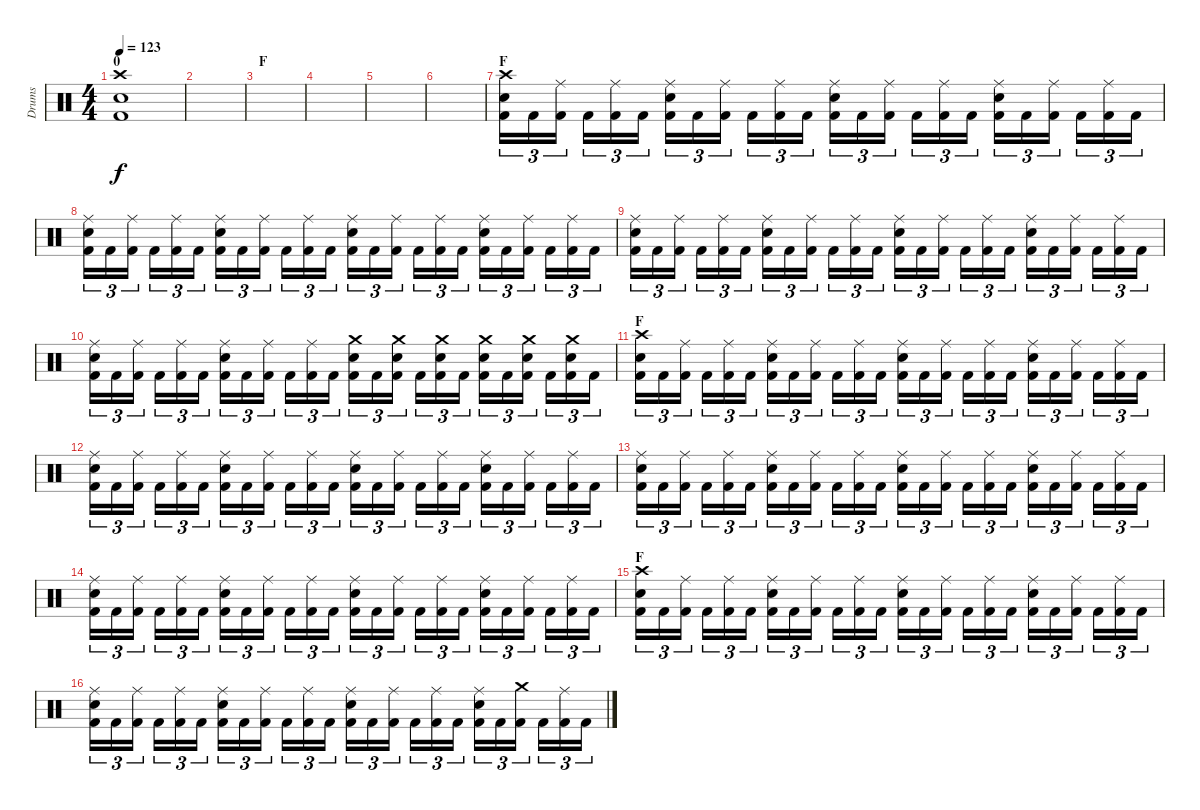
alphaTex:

\track ("Drums" "Drums") {instrument percussion}
\staff {score}
\articulation defaults
\ts (4 4)
\section ("" "0")
\tempo 123
\clef neutral
\ks c
("Crash high (hit)" "Snare (hit) 2" "Kick (hit) 2").1{dy f} |
|
\section ("" "F")
|
|
|
|
\section ("" "F")
("Crash high (hit)" "Snare (hit) 2" "Kick (hit) 2").16{tu (3 2)} "Kick (hit) 2".16{tu (3 2)} ("Ride (middle)" "Kick (hit) 2").16{tu (3 2)} "Kick (hit) 2".16{tu (3 2)} ("Ride (middle)" "Kick (hit) 2").16{tu (3 2)} "Kick (hit) 2".16{tu (3 2)} ("Ride (middle)" "Snare (hit) 2" "Kick (hit) 2").16{tu (3 2)} "Kick (hit) 2".16{tu (3 2)} ("Ride (middle)" "Kick (hit) 2").16{tu (3 2)} "Kick (hit) 2".16{tu (3 2)} ("Ride (middle)" "Kick (hit) 2").16{tu (3 2)} "Kick (hit) 2".16{tu (3 2)} ("Ride (middle)" "Snare (hit) 2" "Kick (hit) 2").16{tu (3 2)} "Kick (hit) 2".16{tu (3 2)} ("Ride (middle)" "Kick (hit) 2").16{tu (3 2)} "Kick (hit) 2".16{tu (3 2)} ("Ride (middle)" "Kick (hit) 2").16{tu (3 2)} "Kick (hit) 2".16{tu (3 2)} ("Ride (middle)" "Snare (hit) 2" "Kick (hit) 2").16{tu (3 2)} "Kick (hit) 2".16{tu (3 2)} ("Ride (middle)" "Kick (hit) 2").16{tu (3 2)} "Kick (hit) 2".16{tu (3 2)} ("Ride (middle)" "Kick (hit) 2").16{tu (3 2)} "Kick (hit) 2".16{tu (3 2)} |
("Ride (middle)" "Snare (hit) 2" "Kick (hit) 2").16{tu (3 2)} "Kick (hit) 2".16{tu (3 2)} ("Ride (middle)" "Kick (hit) 2").16{tu (3 2)} "Kick (hit) 2".16{tu (3 2)} ("Ride (middle)" "Kick (hit) 2").16{tu (3 2)} "Kick (hit) 2".16{tu (3 2)} ("Ride (middle)" "Snare (hit) 2" "Kick (hit) 2").16{tu (3 2)} "Kick (hit) 2".16{tu (3 2)} ("Ride (middle)" "Kick (hit) 2").16{tu (3 2)} "Kick (hit) 2".16{tu (3 2)} ("Ride (middle)" "Kick (hit) 2").16{tu (3 2)} "Kick (hit) 2".16{tu (3 2)} ("Ride (middle)" "Snare (hit) 2" "Kick (hit) 2").16{tu (3 2)} "Kick (hit) 2".16{tu (3 2)} ("Ride (middle)" "Kick (hit) 2").16{tu (3 2)} "Kick (hit) 2".16{tu (3 2)} ("Ride (middle)" "Kick (hit) 2").16{tu (3 2)} "Kick (hit) 2".16{tu (3 2)} ("Ride (middle)" "Snare (hit) 2" "Kick (hit) 2").16{tu (3 2)} "Kick (hit) 2".16{tu (3 2)} ("Ride (middle)" "Kick (hit) 2").16{tu (3 2)} "Kick (hit) 2".16{tu (3 2)} ("Ride (middle)" "Kick (hit) 2").16{tu (3 2)} "Kick (hit) 2".16{tu (3 2)} |
("Ride (middle)" "Snare (hit) 2" "Kick (hit) 2").16{tu (3 2)} "Kick (hit) 2".16{tu (3 2)} ("Ride (middle)" "Kick (hit) 2").16{tu (3 2)} "Kick (hit) 2".16{tu (3 2)} ("Ride (middle)" "Kick (hit) 2").16{tu (3 2)} "Kick (hit) 2".16{tu (3 2)} ("Ride (middle)" "Snare (hit) 2" "Kick (hit) 2").16{tu (3 2)} "Kick (hit) 2".16{tu (3 2)} ("Ride (middle)" "Kick (hit) 2").16{tu (3 2)} "Kick (hit) 2".16{tu (3 2)} ("Ride (middle)" "Kick (hit) 2").16{tu (3 2)} "Kick (hit) 2".16{tu (3 2)} ("Ride (middle)" "Snare (hit) 2" "Kick (hit) 2").16{tu (3 2)} "Kick (hit) 2".16{tu (3 2)} ("Ride (middle)" "Kick (hit) 2").16{tu (3 2)} "Kick (hit) 2".16{tu (3 2)} ("Ride (middle)" "Kick (hit) 2").16{tu (3 2)} "Kick (hit) 2".16{tu (3 2)} ("Ride (middle)" "Snare (hit) 2" "Kick (hit) 2").16{tu (3 2)} "Kick (hit) 2".16{tu (3 2)} ("Ride (middle)" "Kick (hit) 2").16{tu (3 2)} "Kick (hit) 2".16{tu (3 2)} ("Ride (middle)" "Kick (hit) 2").16{tu (3 2)} "Kick (hit) 2".16{tu (3 2)} |
("Ride (middle)" "Snare (hit) 2" "Kick (hit) 2").16{tu (3 2)} "Kick (hit) 2".16{tu (3 2)} ("Ride (middle)" "Kick (hit) 2").16{tu (3 2)} "Kick (hit) 2".16{tu (3 2)} ("Ride (middle)" "Kick (hit) 2").16{tu (3 2)} "Kick (hit) 2".16{tu (3 2)} ("Ride (middle)" "Snare (hit) 2" "Kick (hit) 2").16{tu (3 2)} "Kick (hit) 2".16{tu (3 2)} ("Ride (middle)" "Kick (hit) 2").16{tu (3 2)} "Kick (hit) 2".16{tu (3 2)} ("Ride (middle)" "Kick (hit) 2").16{tu (3 2)} "Kick (hit) 2".16{tu (3 2)} ("Crash medium (hit)" "Snare (hit) 2" "Kick (hit) 2").16{tu (3 2)} "Kick (hit) 2".16{tu (3 2)} ("Crash medium (hit)" "Snare (hit) 2" "Kick (hit) 2").16{tu (3 2)} "Kick (hit) 2".16{tu (3 2)} ("Crash medium (hit)" "Snare (hit) 2" "Kick (hit) 2").16{tu (3 2)} "Kick (hit) 2".16{tu (3 2)} ("Crash medium (hit)" "Snare (hit) 2" "Kick (hit) 2").16{tu (3 2)} "Kick (hit) 2".16{tu (3 2)} ("Crash medium (hit)" "Snare (hit) 2" "Kick (hit) 2").16{tu (3 2)} "Kick (hit) 2".16{tu (3 2)} ("Crash medium (hit)" "Snare (hit) 2" "Kick (hit) 2").16{tu (3 2)} "Kick (hit) 2".16{tu (3 2)} |
\section ("" "F")
("Crash high (hit)" "Snare (hit) 2" "Kick (hit) 2").16{tu (3 2)} "Kick (hit) 2".16{tu (3 2)} ("Ride (middle)" "Kick (hit) 2").16{tu (3 2)} "Kick (hit) 2".16{tu (3 2)} ("Ride (middle)" "Kick (hit) 2").16{tu (3 2)} "Kick (hit) 2".16{tu (3 2)} ("Ride (middle)" "Snare (hit) 2" "Kick (hit) 2").16{tu (3 2)} "Kick (hit) 2".16{tu (3 2)} ("Ride (middle)" "Kick (hit) 2").16{tu (3 2)} "Kick (hit) 2".16{tu (3 2)} ("Ride (middle)" "Kick (hit) 2").16{tu (3 2)} "Kick (hit) 2".16{tu (3 2)} ("Ride (middle)" "Snare (hit) 2" "Kick (hit) 2").16{tu (3 2)} "Kick (hit) 2".16{tu (3 2)} ("Ride (middle)" "Kick (hit) 2").16{tu (3 2)} "Kick (hit) 2".16{tu (3 2)} ("Ride (middle)" "Kick (hit) 2").16{tu (3 2)} "Kick (hit) 2".16{tu (3 2)} ("Ride (middle)" "Snare (hit) 2" "Kick (hit) 2").16{tu (3 2)} "Kick (hit) 2".16{tu (3 2)} ("Ride (middle)" "Kick (hit) 2").16{tu (3 2)} "Kick (hit) 2".16{tu (3 2)} ("Ride (middle)" "Kick (hit) 2").16{tu (3 2)} "Kick (hit) 2".16{tu (3 2)} |
("Ride (middle)" "Snare (hit) 2" "Kick (hit) 2").16{tu (3 2)} "Kick (hit) 2".16{tu (3 2)} ("Ride (middle)" "Kick (hit) 2").16{tu (3 2)} "Kick (hit) 2".16{tu (3 2)} ("Ride (middle)" "Kick (hit) 2").16{tu (3 2)} "Kick (hit) 2".16{tu (3 2)} ("Ride (middle)" "Snare (hit) 2" "Kick (hit) 2").16{tu (3 2)} "Kick (hit) 2".16{tu (3 2)} ("Ride (middle)" "Kick (hit) 2").16{tu (3 2)} "Kick (hit) 2".16{tu (3 2)} ("Ride (middle)" "Kick (hit) 2").16{tu (3 2)} "Kick (hit) 2".16{tu (3 2)} ("Ride (middle)" "Snare (hit) 2" "Kick (hit) 2").16{tu (3 2)} "Kick (hit) 2".16{tu (3 2)} ("Ride (middle)" "Kick (hit) 2").16{tu (3 2)} "Kick (hit) 2".16{tu (3 2)} ("Ride (middle)" "Kick (hit) 2").16{tu (3 2)} "Kick (hit) 2".16{tu (3 2)} ("Ride (middle)" "Snare (hit) 2" "Kick (hit) 2").16{tu (3 2)} "Kick (hit) 2".16{tu (3 2)} ("Ride (middle)" "Kick (hit) 2").16{tu (3 2)} "Kick (hit) 2".16{tu (3 2)} ("Ride (middle)" "Kick (hit) 2").16{tu (3 2)} "Kick (hit) 2".16{tu (3 2)} |
("Ride (middle)" "Snare (hit) 2" "Kick (hit) 2").16{tu (3 2)} "Kick (hit) 2".16{tu (3 2)} ("Ride (middle)" "Kick (hit) 2").16{tu (3 2)} "Kick (hit) 2".16{tu (3 2)} ("Ride (middle)" "Kick (hit) 2").16{tu (3 2)} "Kick (hit) 2".16{tu (3 2)} ("Ride (middle)" "Snare (hit) 2" "Kick (hit) 2").16{tu (3 2)} "Kick (hit) 2".16{tu (3 2)} ("Ride (middle)" "Kick (hit) 2").16{tu (3 2)} "Kick (hit) 2".16{tu (3 2)} ("Ride (middle)" "Kick (hit) 2").16{tu (3 2)} "Kick (hit) 2".16{tu (3 2)} ("Ride (middle)" "Snare (hit) 2" "Kick (hit) 2").16{tu (3 2)} "Kick (hit) 2".16{tu (3 2)} ("Ride (middle)" "Kick (hit) 2").16{tu (3 2)} "Kick (hit) 2".16{tu (3 2)} ("Ride (middle)" "Kick (hit) 2").16{tu (3 2)} "Kick (hit) 2".16{tu (3 2)} ("Ride (middle)" "Snare (hit) 2" "Kick (hit) 2").16{tu (3 2)} "Kick (hit) 2".16{tu (3 2)} ("Ride (middle)" "Kick (hit) 2").16{tu (3 2)} "Kick (hit) 2".16{tu (3 2)} ("Ride (middle)" "Kick (hit) 2").16{tu (3 2)} "Kick (hit) 2".16{tu (3 2)} |
("Ride (middle)" "Snare (hit) 2" "Kick (hit) 2").16{tu (3 2)} "Kick (hit) 2".16{tu (3 2)} ("Ride (middle)" "Kick (hit) 2").16{tu (3 2)} "Kick (hit) 2".16{tu (3 2)} ("Ride (middle)" "Kick (hit) 2").16{tu (3 2)} "Kick (hit) 2".16{tu (3 2)} ("Ride (middle)" "Snare (hit) 2" "Kick (hit) 2").16{tu (3 2)} "Kick (hit) 2".16{tu (3 2)} ("Ride (middle)" "Kick (hit) 2").16{tu (3 2)} "Kick (hit) 2".16{tu (3 2)} ("Ride (middle)" "Kick (hit) 2").16{tu (3 2)} "Kick (hit) 2".16{tu (3 2)} ("Ride (middle)" "Snare (hit) 2" "Kick (hit) 2").16{tu (3 2)} "Kick (hit) 2".16{tu (3 2)} ("Ride (middle)" "Kick (hit) 2").16{tu (3 2)} "Kick (hit) 2".16{tu (3 2)} ("Ride (middle)" "Kick (hit) 2").16{tu (3 2)} "Kick (hit) 2".16{tu (3 2)} ("Ride (middle)" "Snare (hit) 2" "Kick (hit) 2").16{tu (3 2)} "Kick (hit) 2".16{tu (3 2)} ("Ride (middle)" "Kick (hit) 2").16{tu (3 2)} "Kick (hit) 2".16{tu (3 2)} ("Ride (middle)" "Kick (hit) 2").16{tu (3 2)} "Kick (hit) 2".16{tu (3 2)} |
\section ("" "F")
("Crash high (hit)" "Snare (hit) 2" "Kick (hit) 2").16{tu (3 2)} "Kick (hit) 2".16{tu (3 2)} ("Ride (middle)" "Kick (hit) 2").16{tu (3 2)} "Kick (hit) 2".16{tu (3 2)} ("Ride (middle)" "Kick (hit) 2").16{tu (3 2)} "Kick (hit) 2".16{tu (3 2)} ("Ride (middle)" "Snare (hit) 2" "Kick (hit) 2").16{tu (3 2)} "Kick (hit) 2".16{tu (3 2)} ("Ride (middle)" "Kick (hit) 2").16{tu (3 2)} "Kick (hit) 2".16{tu (3 2)} ("Ride (middle)" "Kick (hit) 2").16{tu (3 2)} "Kick (hit) 2".16{tu (3 2)} ("Ride (middle)" "Snare (hit) 2" "Kick (hit) 2").16{tu (3 2)} "Kick (hit) 2".16{tu (3 2)} ("Ride (middle)" "Kick (hit) 2").16{tu (3 2)} "Kick (hit) 2".16{tu (3 2)} ("Ride (middle)" "Kick (hit) 2").16{tu (3 2)} "Kick (hit) 2".16{tu (3 2)} ("Ride (middle)" "Snare (hit) 2" "Kick (hit) 2").16{tu (3 2)} "Kick (hit) 2".16{tu (3 2)} ("Ride (middle)" "Kick (hit) 2").16{tu (3 2)} "Kick (hit) 2".16{tu (3 2)} ("Ride (middle)" "Kick (hit) 2").16{tu (3 2)} "Kick (hit) 2".16{tu (3 2)} |
("Ride (middle)" "Snare (hit) 2" "Kick (hit) 2").16{tu (3 2)} "Kick (hit) 2".16{tu (3 2)} ("Ride (middle)" "Kick (hit) 2").16{tu (3 2)} "Kick (hit) 2".16{tu (3 2)} ("Ride (middle)" "Kick (hit) 2").16{tu (3 2)} "Kick (hit) 2".16{tu (3 2)} ("Ride (middle)" "Snare (hit) 2" "Kick (hit) 2").16{tu (3 2)} "Kick (hit) 2".16{tu (3 2)} ("Ride (middle)" "Kick (hit) 2").16{tu (3 2)} "Kick (hit) 2".16{tu (3 2)} ("Ride (middle)" "Kick (hit) 2").16{tu (3 2)} "Kick (hit) 2".16{tu (3 2)} ("Ride (middle)" "Snare (hit) 2" "Kick (hit) 2").16{tu (3 2)} "Kick (hit) 2".16{tu (3 2)} ("Ride (middle)" "Kick (hit) 2").16{tu (3 2)} "Kick (hit) 2".16{tu (3 2)} ("Ride (middle)" "Kick (hit) 2").16{tu (3 2)} "Kick (hit) 2".16{tu (3 2)} ("Ride (middle)" "Snare (hit) 2" "Kick (hit) 2").16{tu (3 2)} "Kick (hit) 2".16{tu (3 2)} ("Crash medium (hit)" "Kick (hit) 2").16{tu (3 2)} "Kick (hit) 2".16{tu (3 2)} ("Ride (middle)" "Kick (hit) 2").16{tu (3 2)} "Kick (hit) 2".16{tu (3 2)}
